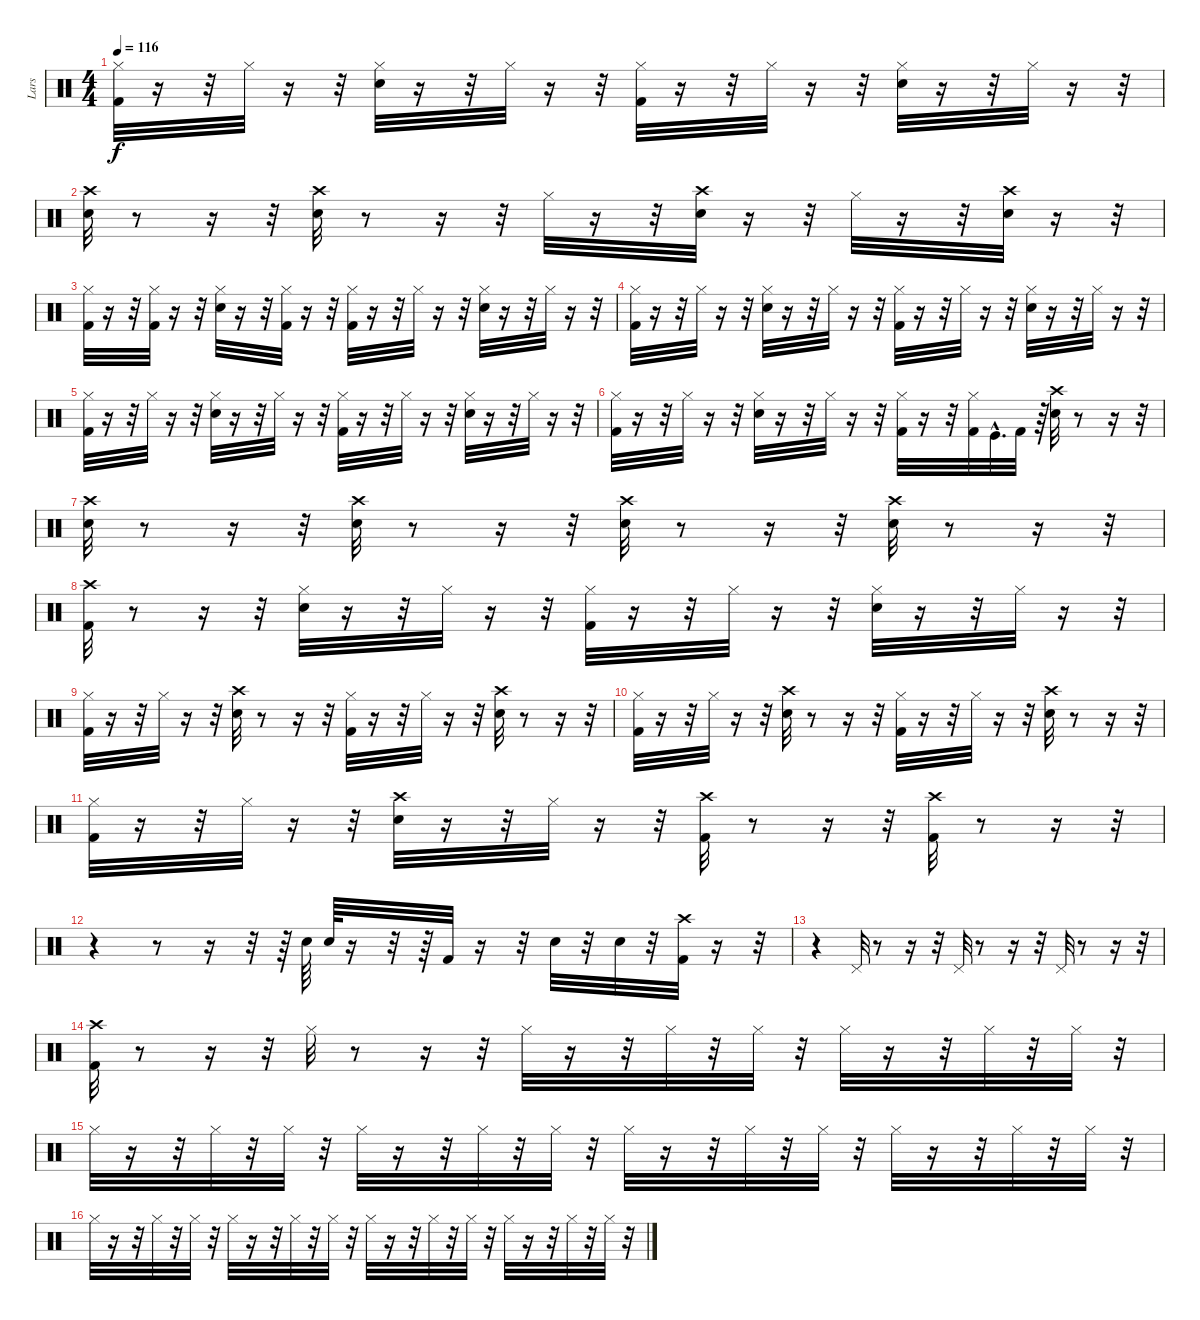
\track ("Lars" "Lars") {instrument percussion}
\staff {score}
\articulation defaults
\ts (4 4)
\tempo 116
\clef neutral
\ks c
("Kick (hit) 2" "Hi-Hat (closed)").32{dy f} r.16 r.32 "Hi-Hat (closed)".32 r.16 r.32 ("Snare (hit) 2" "Hi-Hat (closed)").32 r.16 r.32 "Hi-Hat (closed)".32 r.16 r.32 ("Kick (hit) 2" "Hi-Hat (closed)").32 r.16 r.32 "Hi-Hat (closed)".32 r.16 r.32 ("Snare (hit) 2" "Hi-Hat (closed)").32 r.16 r.32 "Hi-Hat (closed)".32 r.16 r.32 |
("Snare (hit) 2" "Crash high (hit)").32 r.8 r.16 r.32 ("Snare (hit) 2" "Crash high (hit)").32 r.8 r.16 r.32 "Hi-Hat (closed)".32 r.16 r.32 ("Crash high (hit)" "Snare (hit) 2").32 r.16 r.32 "Hi-Hat (closed)".32 r.16 r.32 ("Crash high (hit)" "Snare (hit) 2").32 r.16 r.32 |
("Kick (hit) 2" "Hi-Hat (closed)").32 r.16 r.32 ("Kick (hit) 2" "Hi-Hat (closed)").32 r.16 r.32 ("Snare (hit) 2" "Hi-Hat (closed)").32 r.16 r.32 ("Kick (hit) 2" "Hi-Hat (closed)").32 r.16 r.32 ("Hi-Hat (closed)" "Kick (hit) 2").32 r.16 r.32 "Hi-Hat (closed)".32 r.16 r.32 ("Snare (hit) 2" "Hi-Hat (closed)").32 r.16 r.32 "Hi-Hat (closed)".32 r.16 r.32 |
("Kick (hit) 2" "Hi-Hat (closed)").32 r.16 r.32 "Hi-Hat (closed)".32 r.16 r.32 ("Snare (hit) 2" "Hi-Hat (closed)").32 r.16 r.32 "Hi-Hat (closed)".32 r.16 r.32 ("Kick (hit) 2" "Hi-Hat (closed)").32 r.16 r.32 "Hi-Hat (closed)".32 r.16 r.32 ("Snare (hit) 2" "Hi-Hat (closed)").32 r.16 r.32 "Hi-Hat (closed)".32 r.16 r.32 |
("Kick (hit) 2" "Hi-Hat (closed)").32 r.16 r.32 "Hi-Hat (closed)".32 r.16 r.32 ("Snare (hit) 2" "Hi-Hat (closed)").32 r.16 r.32 "Hi-Hat (closed)".32 r.16 r.32 ("Kick (hit) 2" "Hi-Hat (closed)").32 r.16 r.32 "Hi-Hat (closed)".32 r.16 r.32 ("Snare (hit) 2" "Hi-Hat (closed)").32 r.16 r.32 "Hi-Hat (closed)".32 r.16 r.32 |
("Kick (hit) 2" "Hi-Hat (closed)").32 r.16 r.32 "Hi-Hat (closed)".32 r.16 r.32 ("Snare (hit) 2" "Hi-Hat (closed)").32 r.16 r.32 "Hi-Hat (closed)".32 r.16 r.32 ("Hi-Hat (closed)" "Kick (hit) 2").32 r.16 r.32 ("Hi-Hat (closed)" "Kick (hit) 2").32 "Kick (hit)"{hac}.32{d} "Kick (hit) 2".32 r.64 ("Crash high (hit)" "Snare (hit) 2").32 r.8 r.16 r.32 |
("Snare (hit) 2" "Crash high (hit)").32 r.8 r.16 r.32 ("Crash high (hit)" "Snare (hit) 2").32 r.8 r.16 r.32 ("Crash high (hit)" "Snare (hit) 2").32 r.8 r.16 r.32 ("Crash high (hit)" "Snare (hit) 2").32 r.8 r.16 r.32 |
("Kick (hit) 2" "Crash high (hit)").32 r.8 r.16 r.32 ("Snare (hit) 2" "Hi-Hat (closed)").32 r.16 r.32 "Hi-Hat (closed)".32 r.16 r.32 ("Hi-Hat (closed)" "Kick (hit) 2").32 r.16 r.32 "Hi-Hat (closed)".32 r.16 r.32 ("Snare (hit) 2" "Hi-Hat (closed)").32 r.16 r.32 "Hi-Hat (closed)".32 r.16 r.32 |
("Kick (hit) 2" "Hi-Hat (closed)").32 r.16 r.32 "Hi-Hat (closed)".32 r.16 r.32 ("Crash high (hit)" "Snare (hit) 2").32 r.8 r.16 r.32 ("Hi-Hat (closed)" "Kick (hit) 2").32 r.16 r.32 "Hi-Hat (closed)".32 r.16 r.32 ("Crash high (hit)" "Snare (hit) 2").32 r.8 r.16 r.32 |
("Kick (hit) 2" "Hi-Hat (closed)").32 r.16 r.32 "Hi-Hat (closed)".32 r.16 r.32 ("Crash high (hit)" "Snare (hit) 2").32 r.8 r.16 r.32 ("Hi-Hat (closed)" "Kick (hit) 2").32 r.16 r.32 "Hi-Hat (closed)".32 r.16 r.32 ("Crash high (hit)" "Snare (hit) 2").32 r.8 r.16 r.32 |
("Kick (hit) 2" "Hi-Hat (closed)").32 r.16 r.32 "Hi-Hat (closed)".32 r.16 r.32 ("Crash high (hit)" "Snare (hit) 2").32 r.16 r.32 "Hi-Hat (closed)".32 r.16 r.32 ("Crash high (hit)" "Kick (hit) 2").32 r.8 r.16 r.32 ("Crash high (hit)" "Kick (hit) 2").32 r.8 r.16 r.32 |
r.4 r.8 r.16 r.32 r.64 "Snare (hit) 2".64 "Snare (hit) 2".64 r.16 r.32 r.64 "Kick (hit) 2".32 r.16 r.32 "Snare (hit) 2".32 r.32 "Snare (hit) 2".32 r.32 ("Crash high (hit)" "Kick (hit) 2").32 r.16 r.32 |
r.4 "Pedal Hi-Hat (hit)".32 r.8 r.16 r.32 "Pedal Hi-Hat (hit)".32 r.8 r.16 r.32 "Pedal Hi-Hat (hit)".32 r.8 r.16 r.32 |
("Kick (hit) 2" "Crash high (hit)").32 r.8 r.16 r.32 "Hi-Hat (closed)".32 r.8 r.16 r.32 "Hi-Hat (closed)".32 r.16 r.32 "Hi-Hat (closed)".32 r.32 "Hi-Hat (closed)".32 r.32 "Hi-Hat (closed)".32 r.16 r.32 "Hi-Hat (closed)".32 r.32 "Hi-Hat (closed)".32 r.32 |
"Hi-Hat (closed)".32 r.16 r.32 "Hi-Hat (closed)".32 r.32 "Hi-Hat (closed)".32 r.32 "Hi-Hat (closed)".32 r.16 r.32 "Hi-Hat (closed)".32 r.32 "Hi-Hat (closed)".32 r.32 "Hi-Hat (closed)".32 r.16 r.32 "Hi-Hat (closed)".32 r.32 "Hi-Hat (closed)".32 r.32 "Hi-Hat (closed)".32 r.16 r.32 "Hi-Hat (closed)".32 r.32 "Hi-Hat (closed)".32 r.32 |
"Hi-Hat (closed)".32 r.16 r.32 "Hi-Hat (closed)".32 r.32 "Hi-Hat (closed)".32 r.32 "Hi-Hat (closed)".32 r.16 r.32 "Hi-Hat (closed)".32 r.32 "Hi-Hat (closed)".32 r.32 "Hi-Hat (closed)".32 r.16 r.32 "Hi-Hat (closed)".32 r.32 "Hi-Hat (closed)".32 r.32 "Hi-Hat (closed)".32 r.16 r.32 "Hi-Hat (closed)".32 r.32 "Hi-Hat (closed)".32 r.32
